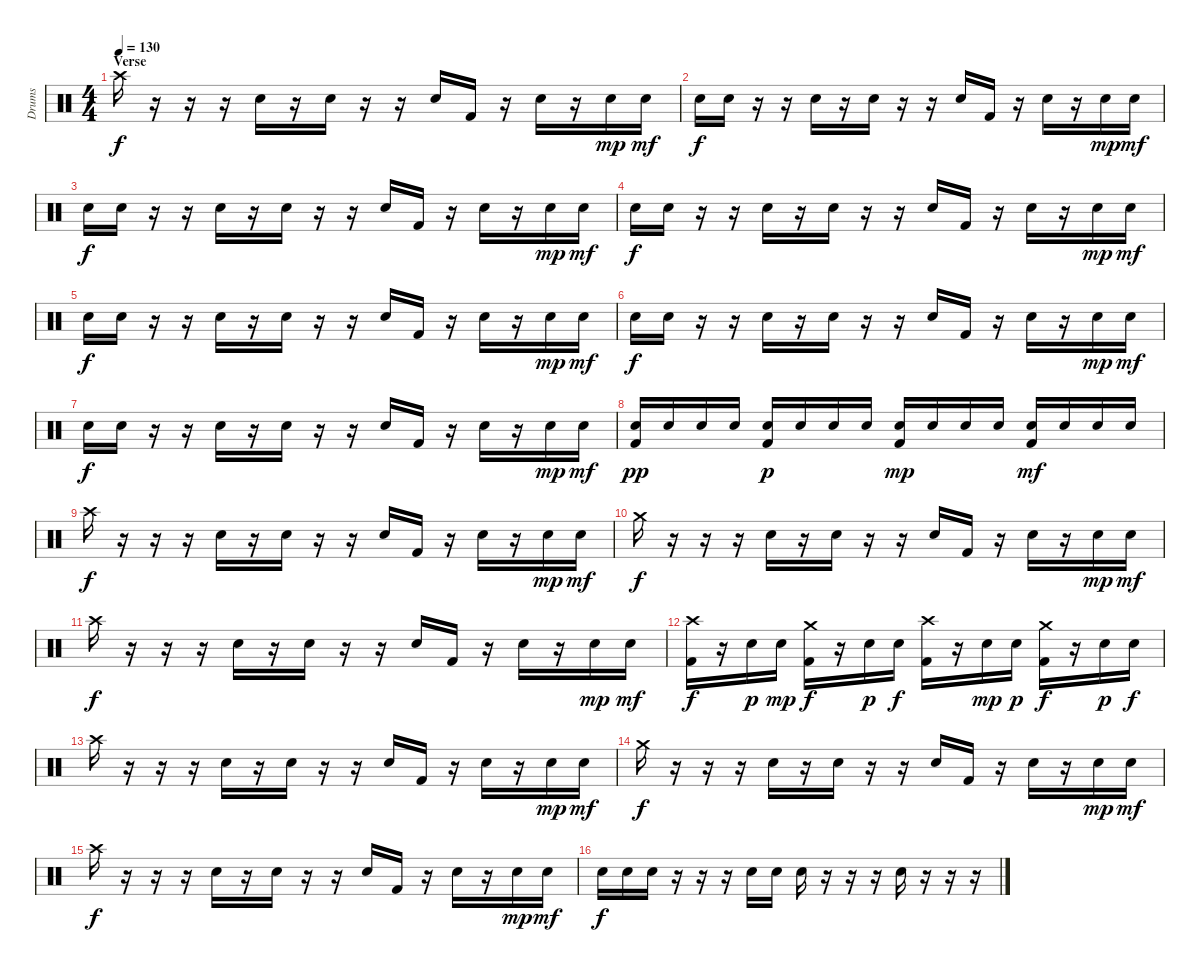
\track ("Drums" "Drums") {instrument percussion}
\staff {score}
\articulation defaults
\ts (4 4)
\section ("" "Verse")
\tempo 130
\clef neutral
\ks c "Crash high (hit)".16{dy f}
r.16 r.16 r.16 "Snare (hit) 2".16 r.16 "Snare (hit) 2".16 r.16 r.16 "Snare (hit) 2".16 "Kick (hit) 2".16 r.16 "Snare (hit) 2".16 r.16 "Snare (hit) 2".16{dy mp} "Snare (hit) 2".16{dy mf} |
"Snare (hit) 2".16{dy f} "Snare (hit) 2".16 r.16 r.16 "Snare (hit) 2".16 r.16 "Snare (hit) 2".16 r.16 r.16 "Snare (hit) 2".16 "Kick (hit) 2".16 r.16 "Snare (hit) 2".16 r.16 "Snare (hit) 2".16{dy mp} "Snare (hit) 2".16{dy mf} |
"Snare (hit) 2".16{dy f} "Snare (hit) 2".16 r.16 r.16 "Snare (hit) 2".16 r.16 "Snare (hit) 2".16 r.16 r.16 "Snare (hit) 2".16 "Kick (hit) 2".16 r.16 "Snare (hit) 2".16 r.16 "Snare (hit) 2".16{dy mp} "Snare (hit) 2".16{dy mf} |
"Snare (hit) 2".16{dy f} "Snare (hit) 2".16 r.16 r.16 "Snare (hit) 2".16 r.16 "Snare (hit) 2".16 r.16 r.16 "Snare (hit) 2".16 "Kick (hit) 2".16 r.16 "Snare (hit) 2".16 r.16 "Snare (hit) 2".16{dy mp} "Snare (hit) 2".16{dy mf} |
"Snare (hit) 2".16{dy f} "Snare (hit) 2".16 r.16 r.16 "Snare (hit) 2".16 r.16 "Snare (hit) 2".16 r.16 r.16 "Snare (hit) 2".16 "Kick (hit) 2".16 r.16 "Snare (hit) 2".16 r.16 "Snare (hit) 2".16{dy mp} "Snare (hit) 2".16{dy mf} |
"Snare (hit) 2".16{dy f} "Snare (hit) 2".16 r.16 r.16 "Snare (hit) 2".16 r.16 "Snare (hit) 2".16 r.16 r.16 "Snare (hit) 2".16 "Kick (hit) 2".16 r.16 "Snare (hit) 2".16 r.16 "Snare (hit) 2".16{dy mp} "Snare (hit) 2".16{dy mf} |
"Snare (hit) 2".16{dy f} "Snare (hit) 2".16 r.16 r.16 "Snare (hit) 2".16 r.16 "Snare (hit) 2".16 r.16 r.16 "Snare (hit) 2".16 "Kick (hit) 2".16 r.16 "Snare (hit) 2".16 r.16 "Snare (hit) 2".16{dy mp} "Snare (hit) 2".16{dy mf} |
("Snare (hit) 2" "Kick (hit) 2").16{dy pp} "Snare (hit) 2".16 "Snare (hit) 2".16 "Snare (hit) 2".16 ("Snare (hit) 2" "Kick (hit) 2").16{dy p} "Snare (hit) 2".16 "Snare (hit) 2".16 "Snare (hit) 2".16 ("Snare (hit) 2" "Kick (hit) 2").16{dy mp} "Snare (hit) 2".16 "Snare (hit) 2".16 "Snare (hit) 2".16 ("Snare (hit) 2" "Kick (hit) 2").16{dy mf} "Snare (hit) 2".16 "Snare (hit) 2".16 "Snare (hit) 2".16 |
"Crash high (hit)".16{dy f} r.16 r.16 r.16 "Snare (hit) 2".16 r.16 "Snare (hit) 2".16 r.16 r.16 "Snare (hit) 2".16 "Kick (hit) 2".16 r.16 "Snare (hit) 2".16 r.16 "Snare (hit) 2".16{dy mp} "Snare (hit) 2".16{dy mf} |
"Crash medium (hit)".16{dy f} r.16 r.16 r.16 "Snare (hit) 2".16 r.16 "Snare (hit) 2".16 r.16 r.16 "Snare (hit) 2".16 "Kick (hit) 2".16 r.16 "Snare (hit) 2".16 r.16 "Snare (hit) 2".16{dy mp} "Snare (hit) 2".16{dy mf} |
"Crash high (hit)".16{dy f} r.16 r.16 r.16 "Snare (hit) 2".16 r.16 "Snare (hit) 2".16 r.16 r.16 "Snare (hit) 2".16 "Kick (hit) 2".16 r.16 "Snare (hit) 2".16 r.16 "Snare (hit) 2".16{dy mp} "Snare (hit) 2".16{dy mf} |
("Crash high (hit)" "Kick (hit) 2").16{dy f} r.16 "Snare (hit) 2".16{dy p} "Snare (hit) 2".16{dy mp} ("Crash medium (hit)" "Kick (hit) 2").16{dy f} r.16 "Snare (hit) 2".16{dy p} "Snare (hit) 2".16{dy f} ("Crash high (hit)" "Kick (hit) 2").16 r.16 "Snare (hit) 2".16{dy mp} "Snare (hit) 2".16{dy p} ("Crash medium (hit)" "Kick (hit) 2").16{dy f} r.16 "Snare (hit) 2".16{dy p} "Snare (hit) 2".16{dy f} |
"Crash high (hit)".16 r.16 r.16 r.16 "Snare (hit) 2".16 r.16 "Snare (hit) 2".16 r.16 r.16 "Snare (hit) 2".16 "Kick (hit) 2".16 r.16 "Snare (hit) 2".16 r.16 "Snare (hit) 2".16{dy mp} "Snare (hit) 2".16{dy mf} |
"Crash medium (hit)".16{dy f} r.16 r.16 r.16 "Snare (hit) 2".16 r.16 "Snare (hit) 2".16 r.16 r.16 "Snare (hit) 2".16 "Kick (hit) 2".16 r.16 "Snare (hit) 2".16 r.16 "Snare (hit) 2".16{dy mp} "Snare (hit) 2".16{dy mf} |
"Crash high (hit)".16{dy f} r.16 r.16 r.16 "Snare (hit) 2".16 r.16 "Snare (hit) 2".16 r.16 r.16 "Snare (hit) 2".16 "Kick (hit) 2".16 r.16 "Snare (hit) 2".16 r.16 "Snare (hit) 2".16{dy mp} "Snare (hit) 2".16{dy mf} |
"Snare (hit) 2".16{dy f} "Snare (hit) 2".16 "Snare (hit) 2".16 r.16 r.16 r.16 "Snare (hit) 2".16 "Snare (hit) 2".16 "Snare (hit) 2".16 r.16 r.16 r.16 "Snare (hit) 2".16 r.16 r.16 r.16
